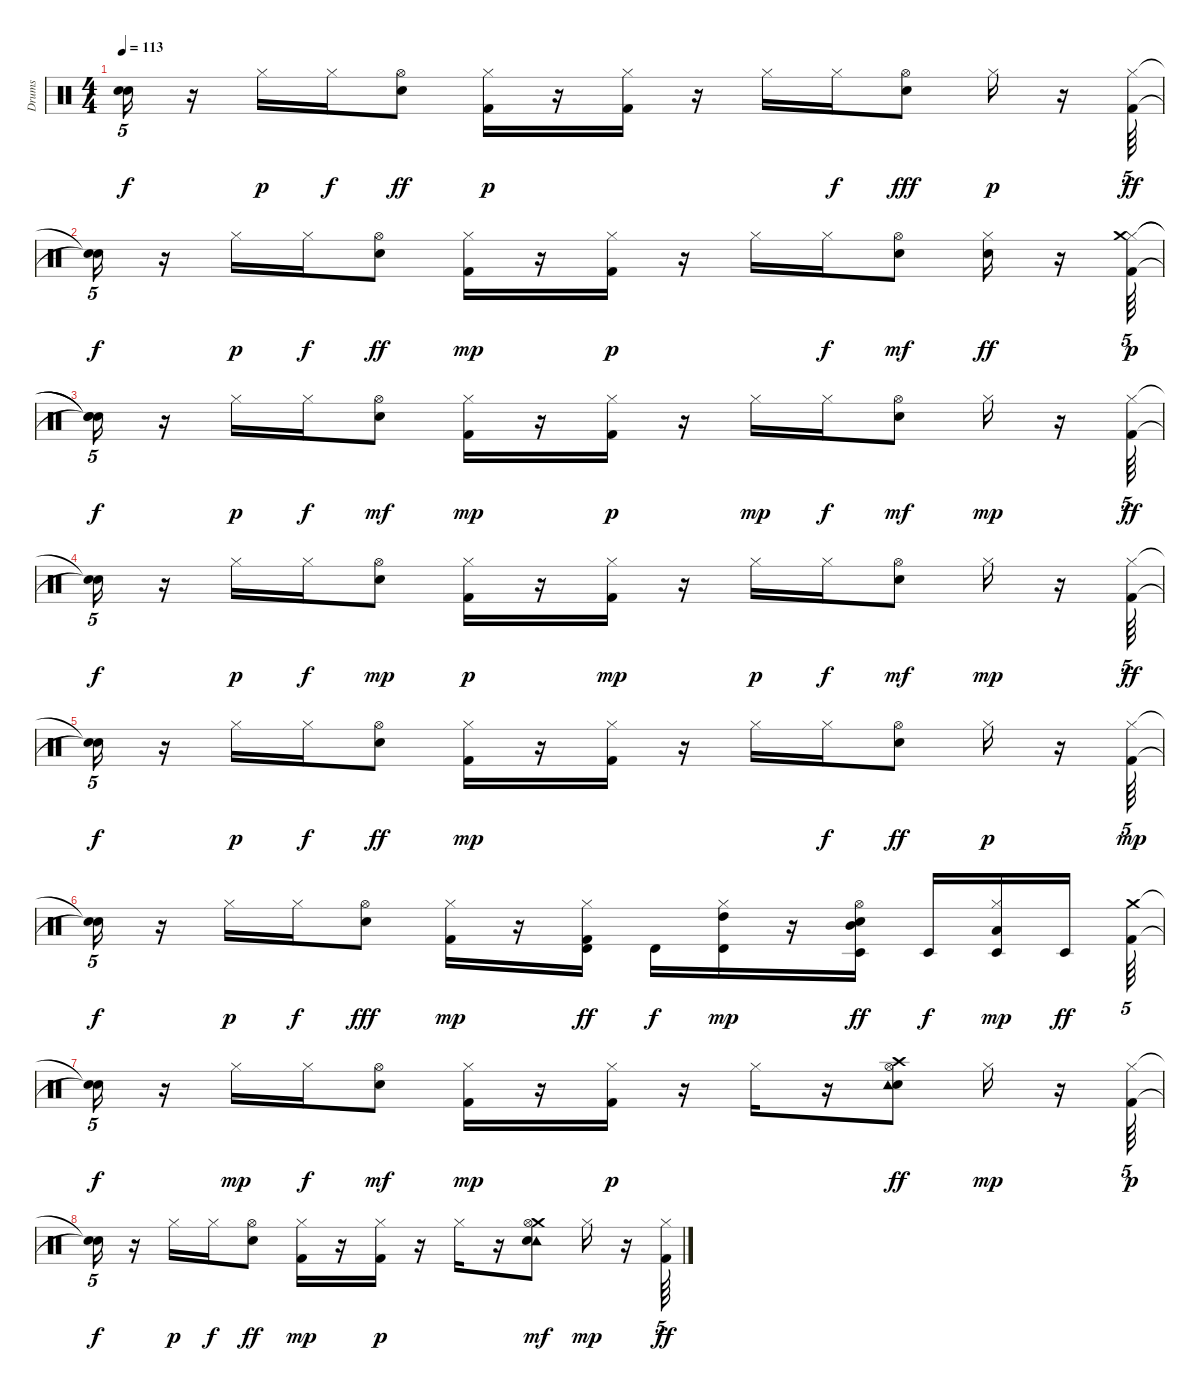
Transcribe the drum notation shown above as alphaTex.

\track ("Drums" "Drums") {instrument percussion}
\staff {score}
\articulation defaults
\ts (4 4)
\tempo 113
\clef neutral
\ks c
("Snare (hit)"{t} "Snare (hit)"{t}).16{tu (5 4) dy f} r.16 "Hi-Hat (closed)".16{dy p} "Hi-Hat (closed)".16{dy f} ("Hi-Hat (open)" "Electric Snare (hit)").8{dy ff} ("Hi-Hat (closed)" "Kick (hit) 2").16{dy p} r.16 ("Hi-Hat (closed)" "Kick (hit) 2").16 r.16 "Hi-Hat (closed)".16 "Hi-Hat (closed)".16{dy f} ("Electric Snare (hit)" "Hi-Hat (open)").8{dy fff} "Hi-Hat (closed)".16{dy p} r.16 ("Hi-Hat (closed)" "Kick (hit) 2").64{tu (5 4) dy ff} |
("Snare (hit)"{t} "Snare (hit)"{t}).16{tu (5 4) dy f} r.16 "Hi-Hat (closed)".16{dy p} "Hi-Hat (closed)".16{dy f} ("Hi-Hat (open)" "Electric Snare (hit)").8{dy ff} ("Kick (hit) 2" "Hi-Hat (closed)").16{dy mp} r.16 ("Hi-Hat (closed)" "Kick (hit) 2").16{dy p} r.16 "Hi-Hat (closed)".16 "Hi-Hat (closed)".16{dy f} ("Electric Snare (hit)" "Hi-Hat (open)").8{dy mf} ("Hi-Hat (closed)" "Electric Snare (hit)").16{dy ff} r.16 ("Kick (hit) 2" "Hi-Hat (closed)" "Crash medium (hit)").64{tu (5 4) dy p} |
("Snare (hit)"{t} "Snare (hit)"{t} "Snare (hit)"{t}).16{tu (5 4) dy f} r.16 "Hi-Hat (closed)".16{dy p} "Hi-Hat (closed)".16{dy f} ("Electric Snare (hit)" "Hi-Hat (open)").8{dy mf} ("Kick (hit) 2" "Hi-Hat (closed)").16{dy mp} r.16 ("Kick (hit) 2" "Hi-Hat (closed)").16{dy p} r.16 "Hi-Hat (closed)".16{dy mp} "Hi-Hat (closed)".16{dy f} ("Electric Snare (hit)" "Hi-Hat (open)").8{dy mf} "Hi-Hat (closed)".16{dy mp} r.16 ("Hi-Hat (closed)" "Kick (hit) 2").64{tu (5 4) dy ff} |
("Snare (hit)"{t} "Snare (hit)"{t}).16{tu (5 4) dy f} r.16 "Hi-Hat (closed)".16{dy p} "Hi-Hat (closed)".16{dy f} ("Electric Snare (hit)" "Hi-Hat (open)").8{dy mp} ("Kick (hit) 2" "Hi-Hat (closed)").16{dy p} r.16 ("Kick (hit) 2" "Hi-Hat (closed)").16{dy mp} r.16 "Hi-Hat (closed)".16{dy p} "Hi-Hat (closed)".16{dy f} ("Electric Snare (hit)" "Hi-Hat (open)").8{dy mf} "Hi-Hat (closed)".16{dy mp} r.16 ("Hi-Hat (closed)" "Kick (hit) 2").64{tu (5 4) dy ff} |
("Snare (hit)"{t} "Snare (hit)"{t}).16{tu (5 4) dy f} r.16 "Hi-Hat (closed)".16{dy p} "Hi-Hat (closed)".16{dy f} ("Hi-Hat (open)" "Electric Snare (hit)").8{dy ff} ("Kick (hit) 2" "Hi-Hat (closed)").16{dy mp} r.16 ("Kick (hit) 2" "Hi-Hat (closed)").16 r.16 "Hi-Hat (closed)".16 "Hi-Hat (closed)".16{dy f} ("Hi-Hat (open)" "Electric Snare (hit)").8{dy ff} "Hi-Hat (closed)".16{dy p} r.16 ("Kick (hit) 2" "Hi-Hat (closed)").64{tu (5 4) dy mp} |
("Snare (hit)"{t} "Snare (hit)"{t}).16{tu (5 4) dy f} r.16 "Hi-Hat (closed)".16{dy p} "Hi-Hat (closed)".16{dy f} ("Hi-Hat (open)" "Electric Snare (hit)").8{dy fff} ("Kick (hit) 2" "Hi-Hat (closed)").16{dy mp} r.16 ("Hi-Hat (closed)" "Kick (hit) 2" "Timbale high (hit)").16{dy ff} "Timbale high (hit)".16{dy f} ("High Tom (hit)" "Timbale high (hit)" "Hi-Hat (closed)").16{dy mp} r.16 ("Electric Snare (hit)" "Timbale low (hit)" "Hi-Hat (open)" "Mid Tom (hit)").16{dy ff} "Timbale low (hit)".16{dy f} ("Low Tom (hit)" "Timbale low (hit)" "Hi-Hat (closed)").16{dy mp} "Timbale low (hit)".16{dy ff beam splitsecondary} ("Kick (hit) 2" "Crash medium (hit)").64{tu (5 4)} |
("Snare (hit)"{t} "Snare (hit)"{t}).16{tu (5 4) dy f} r.16 "Hi-Hat (closed)".16{dy mp} "Hi-Hat (closed)".16{dy f} ("Electric Snare (hit)" "Hi-Hat (open)").8{dy mf} ("Kick (hit) 2" "Hi-Hat (closed)").16{dy mp} r.16 ("Kick (hit) 2" "Hi-Hat (closed)").16{dy p} r.16 "Hi-Hat (closed)".16 r.16 ("Hi-Hat (open)" "Electric Snare (hit)" "Tambourine (hit)" "Crash high (hit)").8{dy ff} "Hi-Hat (closed)".16{dy mp} r.16 ("Kick (hit) 2" "Hi-Hat (closed)").64{tu (5 4) dy p} |
("Snare (hit)"{t} "Snare (hit)"{t}).16{tu (5 4) dy f} r.16 "Hi-Hat (closed)".16{dy p} "Hi-Hat (closed)".16{dy f} ("Hi-Hat (open)" "Electric Snare (hit)").8{dy ff} ("Kick (hit) 2" "Hi-Hat (closed)").16{dy mp} r.16 ("Hi-Hat (closed)" "Kick (hit) 2").16{dy p} r.16 "Hi-Hat (closed)".16 r.16 ("Tambourine (hit)" "Crash medium (hit)" "Electric Snare (hit)" "Hi-Hat (open)").8{dy mf} "Hi-Hat (closed)".16{dy mp} r.16 ("Hi-Hat (closed)" "Kick (hit) 2").64{tu (5 4) dy ff}
